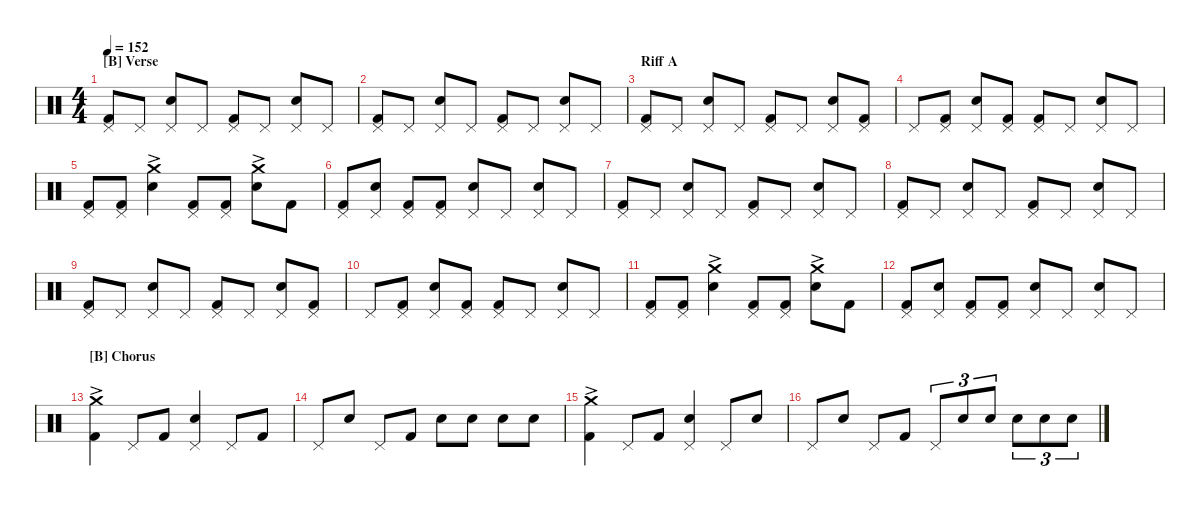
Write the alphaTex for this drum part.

\hideDynamics
\bracketExtendMode nobrackets
\singleTrackTrackNamePolicy hidden
\multiTrackTrackNamePolicy hidden
\firstSystemTrackNameMode fullname
\firstSystemTrackNameOrientation horizontal
\otherSystemsTrackNameOrientation horizontal
\track ("Drumkit" "Drums") {instrument percussion}
\staff {score}
\articulation defaults
\ts (4 4)
\section ("B" "Verse")
\tempo 152
\clef neutral
\ks c
("Pedal Hi-Hat (hit)" "Kick (hit) 2").8{dy f beam Up} "Pedal Hi-Hat (hit)".8{beam Up} ("Pedal Hi-Hat (hit)" "Snare (hit) 2").8{beam Up} "Pedal Hi-Hat (hit)".8{beam Up} ("Pedal Hi-Hat (hit)" "Kick (hit) 2").8{beam Up} "Pedal Hi-Hat (hit)".8{beam Up} ("Pedal Hi-Hat (hit)" "Snare (hit) 2").8{beam Up} "Pedal Hi-Hat (hit)".8{beam Up} |
("Pedal Hi-Hat (hit)" "Kick (hit) 2").8{beam Up} "Pedal Hi-Hat (hit)".8{beam Up} ("Pedal Hi-Hat (hit)" "Snare (hit) 2").8{beam Up} "Pedal Hi-Hat (hit)".8{beam Up} ("Pedal Hi-Hat (hit)" "Kick (hit) 2").8{beam Up} "Pedal Hi-Hat (hit)".8{beam Up} ("Pedal Hi-Hat (hit)" "Snare (hit) 2").8{beam Up} "Pedal Hi-Hat (hit)".8{beam Up} |
\section ("" "Riff A")
("Pedal Hi-Hat (hit)" "Kick (hit) 2").8{beam Up} "Pedal Hi-Hat (hit)".8{beam Up} ("Pedal Hi-Hat (hit)" "Snare (hit) 2").8{beam Up} "Pedal Hi-Hat (hit)".8{beam Up} ("Pedal Hi-Hat (hit)" "Kick (hit) 2").8{beam Up} "Pedal Hi-Hat (hit)".8{beam Up} ("Pedal Hi-Hat (hit)" "Snare (hit) 2").8{beam Up} ("Pedal Hi-Hat (hit)" "Kick (hit) 2").8{beam Up} |
"Pedal Hi-Hat (hit)".8{beam Up} ("Pedal Hi-Hat (hit)" "Kick (hit) 2").8{beam Up} ("Pedal Hi-Hat (hit)" "Snare (hit) 2").8{beam Up} ("Pedal Hi-Hat (hit)" "Kick (hit) 2").8{beam Up} ("Pedal Hi-Hat (hit)" "Kick (hit) 2").8{beam Up} "Pedal Hi-Hat (hit)".8{beam Up} ("Pedal Hi-Hat (hit)" "Snare (hit) 2").8{beam Up} "Pedal Hi-Hat (hit)".8{beam Up} |
("Pedal Hi-Hat (hit)" "Kick (hit) 2").8{beam Up} ("Pedal Hi-Hat (hit)" "Kick (hit) 2").8{beam Up} ("Crash medium (hit)"{ac} "Snare (hit) 2").4{beam Down} ("Pedal Hi-Hat (hit)" "Kick (hit) 2").8{beam Up} ("Pedal Hi-Hat (hit)" "Kick (hit) 2").8{beam Up} ("Crash medium (hit)"{ac} "Snare (hit) 2").8{beam Down} "Kick (hit) 2".8{beam Down} |
("Pedal Hi-Hat (hit)" "Kick (hit) 2").8{beam Up} ("Pedal Hi-Hat (hit)" "Snare (hit) 2").8{beam Up} ("Pedal Hi-Hat (hit)" "Kick (hit) 2").8{beam Up} ("Pedal Hi-Hat (hit)" "Kick (hit) 2").8{beam Up} ("Pedal Hi-Hat (hit)" "Snare (hit) 2").8{beam Up} "Pedal Hi-Hat (hit)".8{beam Up} ("Pedal Hi-Hat (hit)" "Snare (hit) 2").8{beam Up} "Pedal Hi-Hat (hit)".8{beam Up} |
("Pedal Hi-Hat (hit)" "Kick (hit) 2").8{beam Up} "Pedal Hi-Hat (hit)".8{beam Up} ("Pedal Hi-Hat (hit)" "Snare (hit) 2").8{beam Up} "Pedal Hi-Hat (hit)".8{beam Up} ("Pedal Hi-Hat (hit)" "Kick (hit) 2").8{beam Up} "Pedal Hi-Hat (hit)".8{beam Up} ("Pedal Hi-Hat (hit)" "Snare (hit) 2").8{beam Up} "Pedal Hi-Hat (hit)".8{beam Up} |
("Pedal Hi-Hat (hit)" "Kick (hit) 2").8{beam Up} "Pedal Hi-Hat (hit)".8{beam Up} ("Pedal Hi-Hat (hit)" "Snare (hit) 2").8{beam Up} "Pedal Hi-Hat (hit)".8{beam Up} ("Pedal Hi-Hat (hit)" "Kick (hit) 2").8{beam Up} "Pedal Hi-Hat (hit)".8{beam Up} ("Pedal Hi-Hat (hit)" "Snare (hit) 2").8{beam Up} "Pedal Hi-Hat (hit)".8{beam Up} |
("Pedal Hi-Hat (hit)" "Kick (hit) 2").8{beam Up} "Pedal Hi-Hat (hit)".8{beam Up} ("Pedal Hi-Hat (hit)" "Snare (hit) 2").8{beam Up} "Pedal Hi-Hat (hit)".8{beam Up} ("Pedal Hi-Hat (hit)" "Kick (hit) 2").8{beam Up} "Pedal Hi-Hat (hit)".8{beam Up} ("Pedal Hi-Hat (hit)" "Snare (hit) 2").8{beam Up} ("Pedal Hi-Hat (hit)" "Kick (hit) 2").8{beam Up} |
"Pedal Hi-Hat (hit)".8{beam Up} ("Pedal Hi-Hat (hit)" "Kick (hit) 2").8{beam Up} ("Pedal Hi-Hat (hit)" "Snare (hit) 2").8{beam Up} ("Pedal Hi-Hat (hit)" "Kick (hit) 2").8{beam Up} ("Pedal Hi-Hat (hit)" "Kick (hit) 2").8{beam Up} "Pedal Hi-Hat (hit)".8{beam Up} ("Pedal Hi-Hat (hit)" "Snare (hit) 2").8{beam Up} "Pedal Hi-Hat (hit)".8{beam Up} |
("Pedal Hi-Hat (hit)" "Kick (hit) 2").8{beam Up} ("Pedal Hi-Hat (hit)" "Kick (hit) 2").8{beam Up} ("Crash medium (hit)"{ac} "Snare (hit) 2").4{beam Down} ("Pedal Hi-Hat (hit)" "Kick (hit) 2").8{beam Up} ("Pedal Hi-Hat (hit)" "Kick (hit) 2").8{beam Up} ("Crash medium (hit)"{ac} "Snare (hit) 2").8{beam Down} "Kick (hit) 2".8{beam Down} |
("Pedal Hi-Hat (hit)" "Kick (hit) 2").8{beam Up} ("Pedal Hi-Hat (hit)" "Snare (hit) 2").8{beam Up} ("Pedal Hi-Hat (hit)" "Kick (hit) 2").8{beam Up} ("Pedal Hi-Hat (hit)" "Kick (hit) 2").8{beam Up} ("Pedal Hi-Hat (hit)" "Snare (hit) 2").8{beam Up} "Pedal Hi-Hat (hit)".8{beam Up} ("Pedal Hi-Hat (hit)" "Snare (hit) 2").8{beam Up} "Pedal Hi-Hat (hit)".8{beam Up} |
\section ("B" "Chorus")
("Crash medium (hit)"{ac} "Kick (hit) 2").4{beam Down} "Pedal Hi-Hat (hit)".8{beam Up} "Kick (hit) 2".8{beam Up} ("Pedal Hi-Hat (hit)" "Snare (hit) 2").4{beam Up} "Pedal Hi-Hat (hit)".8{beam Up} "Kick (hit) 2".8{beam Up} |
"Pedal Hi-Hat (hit)".8{beam Up} "Snare (hit) 2".8{beam Up} "Pedal Hi-Hat (hit)".8{beam Up} "Kick (hit) 2".8{beam Up} "Snare (hit) 2".8{beam Down} "Snare (hit) 2".8{beam Down} "Snare (hit) 2".8{beam Down} "Snare (hit) 2".8{beam Down} |
("Crash medium (hit)"{ac} "Kick (hit) 2").4{beam Down} "Pedal Hi-Hat (hit)".8{beam Up} "Kick (hit) 2".8{beam Up} ("Pedal Hi-Hat (hit)" "Snare (hit) 2").4{beam Up} "Pedal Hi-Hat (hit)".8{beam Up} "Snare (hit) 2".8{beam Up} |
"Pedal Hi-Hat (hit)".8{beam Up} "Snare (hit) 2".8{beam Up} "Pedal Hi-Hat (hit)".8{beam Up} "Kick (hit) 2".8{beam Up} "Pedal Hi-Hat (hit)".8{tu (3 2) beam Up} "Snare (hit) 2".8{tu (3 2) beam Up} "Snare (hit) 2".8{tu (3 2) beam Up} "Snare (hit) 2".8{tu (3 2) beam Down} "Snare (hit) 2".8{tu (3 2) beam Down} "Snare (hit) 2".8{tu (3 2) beam Down}
